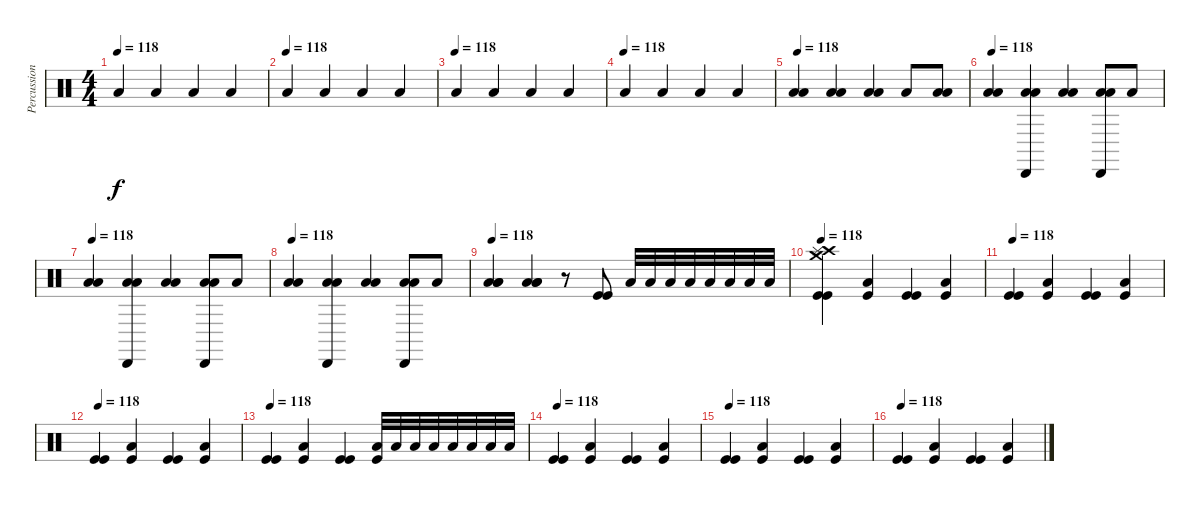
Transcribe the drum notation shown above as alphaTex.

\track ("Percussions" "Percussion") {instrument percussion}
\staff {score}
\articulation defaults
\ts (4 4)
\tempo 118
\clef neutral
\ks c "Low Floor Tom (hit)".4{dy f volume 13} "Low Floor Tom (hit)".4 "Low Floor Tom (hit)".4 "Low Floor Tom (hit)".4
|
\tempo (118)
"Low Floor Tom (hit)".4{volume 13} "Low Floor Tom (hit)".4 "Low Floor Tom (hit)".4 "Low Floor Tom (hit)".4 |
\tempo (118)
"Low Floor Tom (hit)".4{volume 13} "Low Floor Tom (hit)".4 "Low Floor Tom (hit)".4 "Low Floor Tom (hit)".4 |
\tempo (118)
"Low Floor Tom (hit)".4{volume 13} "Low Floor Tom (hit)".4 "Low Floor Tom (hit)".4 "Low Floor Tom (hit)".4 |
\tempo 118
("Low Floor Tom (hit)" "Low Floor Tom (hit)").4{volume 13} ("Low Floor Tom (hit)" "Low Floor Tom (hit)").4 ("Low Floor Tom (hit)" "Low Floor Tom (hit)").4 "Low Floor Tom (hit)".8 ("Low Floor Tom (hit)" "Low Floor Tom (hit)").8 |
\tempo 118
("Low Floor Tom (hit)" "Low Floor Tom (hit)").4{volume 16} ("Cabasa (hit)" "Low Floor Tom (hit)" "Low Floor Tom (hit)").4 ("Low Floor Tom (hit)" "Low Floor Tom (hit)").4 ("Cabasa (hit)" "Low Floor Tom (hit)" "Low Floor Tom (hit)").8 "Low Floor Tom (hit)".8 |
\tempo 118
("Low Floor Tom (hit)" "Low Floor Tom (hit)").4{volume 16} ("Cabasa (hit)" "Low Floor Tom (hit)" "Low Floor Tom (hit)").4 ("Low Floor Tom (hit)" "Low Floor Tom (hit)").4 ("Cabasa (hit)" "Low Floor Tom (hit)" "Low Floor Tom (hit)").8 "Low Floor Tom (hit)".8 |
\tempo 118
("Low Floor Tom (hit)" "Low Floor Tom (hit)").4{volume 16} ("Cabasa (hit)" "Low Floor Tom (hit)" "Low Floor Tom (hit)").4 ("Low Floor Tom (hit)" "Low Floor Tom (hit)").4 ("Cabasa (hit)" "Low Floor Tom (hit)" "Low Floor Tom (hit)").8 "Low Floor Tom (hit)".8 |
\tempo 118
("Low Floor Tom (hit)" "Low Floor Tom (hit)" "Low Floor Tom (hit)").4 ("Low Floor Tom (hit)" "Low Floor Tom (hit)" "Low Floor Tom (hit)").4 r.8 ("Kick (hit)" "Kick (hit)").8 "Low Floor Tom (hit)".32{volume 13} "Low Floor Tom (hit)".32 "Low Floor Tom (hit)".32 "Low Floor Tom (hit)".32 "Low Floor Tom (hit)".32 "Low Floor Tom (hit)".32 "Low Floor Tom (hit)".32 "Low Floor Tom (hit)".32 |
\tempo 118
("Crash high (hit)" "Crash medium (hit)" "Splash (hit)" "Kick (hit)" "Kick (hit)").4{volume 15} ("Low Floor Tom (hit)" "Kick (hit)").4 ("Kick (hit)" "Kick (hit)").4 ("Low Floor Tom (hit)" "Kick (hit)").4 |
\tempo 118
("Kick (hit)" "Kick (hit)").4 ("Kick (hit)" "Low Floor Tom (hit)").4 ("Kick (hit)" "Kick (hit)").4 ("Kick (hit)" "Low Floor Tom (hit)").4 |
\tempo 118
("Kick (hit)" "Kick (hit)").4 ("Kick (hit)" "Low Floor Tom (hit)").4 ("Kick (hit)" "Kick (hit)").4 ("Kick (hit)" "Low Floor Tom (hit)").4 |
\tempo 118
("Kick (hit)" "Kick (hit)").4 ("Kick (hit)" "Low Floor Tom (hit)").4 ("Kick (hit)" "Kick (hit)").4 ("Kick (hit)" "Low Floor Tom (hit)").32 "Low Floor Tom (hit)".32 "Low Floor Tom (hit)".32 "Low Floor Tom (hit)".32 "Low Floor Tom (hit)".32 "Low Floor Tom (hit)".32 "Low Floor Tom (hit)".32 "Low Floor Tom (hit)".32 |
\tempo 118
("Kick (hit)" "Kick (hit)").4 ("Kick (hit)" "Low Floor Tom (hit)").4 ("Kick (hit)" "Kick (hit)").4 ("Kick (hit)" "Low Floor Tom (hit)").4 |
\tempo 118
("Kick (hit)" "Kick (hit)").4 ("Kick (hit)" "Low Floor Tom (hit)").4 ("Kick (hit)" "Kick (hit)").4 ("Kick (hit)" "Low Floor Tom (hit)").4 |
\tempo 118
("Kick (hit)" "Kick (hit)").4 ("Kick (hit)" "Low Floor Tom (hit)").4 ("Kick (hit)" "Kick (hit)").4 ("Kick (hit)" "Low Floor Tom (hit)").4
